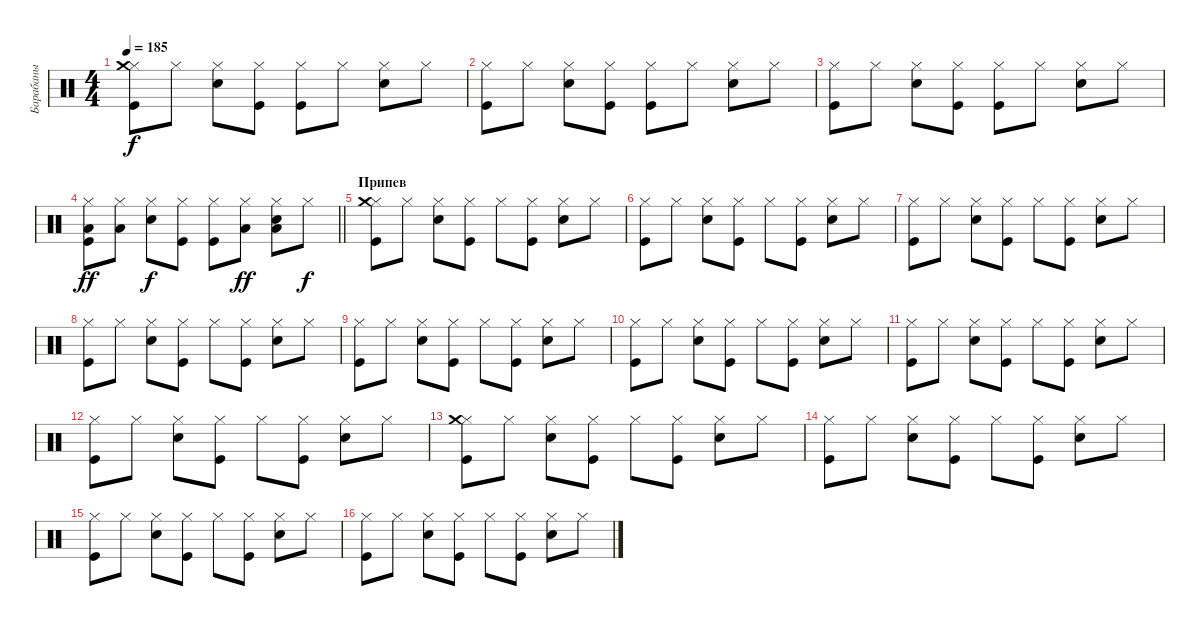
\track ("Барабаны" "Барабаны") {instrument percussion}
\staff {score}
\articulation defaults
\ts (4 4)
\tempo 185
\clef neutral
\ks c
("Kick (hit)" "Hi-Hat (closed)" "Crash medium (hit)").8{dy f} "Hi-Hat (closed)".8 ("Snare (hit) 2" "Hi-Hat (closed)").8 ("Kick (hit)" "Hi-Hat (closed)").8 ("Kick (hit)" "Hi-Hat (closed)").8 "Hi-Hat (closed)".8 ("Snare (hit) 2" "Hi-Hat (closed)").8 "Hi-Hat (closed)".8 |
("Kick (hit)" "Hi-Hat (closed)").8 "Hi-Hat (closed)".8 ("Snare (hit) 2" "Hi-Hat (closed)").8 ("Kick (hit)" "Hi-Hat (closed)").8 ("Kick (hit)" "Hi-Hat (closed)").8 "Hi-Hat (closed)".8 ("Snare (hit) 2" "Hi-Hat (closed)").8 "Hi-Hat (closed)".8 |
("Kick (hit)" "Hi-Hat (closed)").8 "Hi-Hat (closed)".8 ("Snare (hit) 2" "Hi-Hat (closed)").8 ("Kick (hit)" "Hi-Hat (closed)").8 ("Kick (hit)" "Hi-Hat (closed)").8 "Hi-Hat (closed)".8 ("Snare (hit) 2" "Hi-Hat (closed)").8 "Hi-Hat (closed)".8 |
\barLineRight lightlight
("Kick (hit)" "Hi-Hat (closed)" "Low Tom (hit)").8{dy ff} ("Hi-Hat (closed)" "Low Tom (hit)").8 ("Snare (hit) 2" "Hi-Hat (closed)").8{dy f} ("Kick (hit)" "Hi-Hat (closed)").8 ("Kick (hit)" "Hi-Hat (closed)").8 ("Hi-Hat (closed)" "Low Floor Tom (hit)").8{dy ff} ("Snare (hit) 2" "Hi-Hat (closed)" "Low Floor Tom (hit)").8 "Hi-Hat (closed)".8{dy f} |
\section ("" "Припев")
("Kick (hit)" "Hi-Hat (closed)" "Crash medium (hit)").8 "Hi-Hat (closed)".8 ("Snare (hit) 2" "Hi-Hat (closed)").8 ("Kick (hit)" "Hi-Hat (closed)").8 "Hi-Hat (closed)".8 ("Kick (hit)" "Hi-Hat (closed)").8 ("Snare (hit) 2" "Hi-Hat (closed)").8 "Hi-Hat (closed)".8 |
("Kick (hit)" "Hi-Hat (closed)").8 "Hi-Hat (closed)".8 ("Snare (hit) 2" "Hi-Hat (closed)").8 ("Kick (hit)" "Hi-Hat (closed)").8 "Hi-Hat (closed)".8 ("Kick (hit)" "Hi-Hat (closed)").8 ("Snare (hit) 2" "Hi-Hat (closed)").8 "Hi-Hat (closed)".8 |
("Kick (hit)" "Hi-Hat (closed)").8 "Hi-Hat (closed)".8 ("Snare (hit) 2" "Hi-Hat (closed)").8 ("Kick (hit)" "Hi-Hat (closed)").8 "Hi-Hat (closed)".8 ("Kick (hit)" "Hi-Hat (closed)").8 ("Snare (hit) 2" "Hi-Hat (closed)").8 "Hi-Hat (closed)".8 |
("Kick (hit)" "Hi-Hat (closed)").8 "Hi-Hat (closed)".8 ("Snare (hit) 2" "Hi-Hat (closed)").8 ("Kick (hit)" "Hi-Hat (closed)").8 "Hi-Hat (closed)".8 ("Kick (hit)" "Hi-Hat (closed)").8 ("Snare (hit) 2" "Hi-Hat (closed)").8 "Hi-Hat (closed)".8 |
("Kick (hit)" "Hi-Hat (closed)").8 "Hi-Hat (closed)".8 ("Snare (hit) 2" "Hi-Hat (closed)").8 ("Kick (hit)" "Hi-Hat (closed)").8 "Hi-Hat (closed)".8 ("Kick (hit)" "Hi-Hat (closed)").8 ("Snare (hit) 2" "Hi-Hat (closed)").8 "Hi-Hat (closed)".8 |
("Kick (hit)" "Hi-Hat (closed)").8 "Hi-Hat (closed)".8 ("Snare (hit) 2" "Hi-Hat (closed)").8 ("Kick (hit)" "Hi-Hat (closed)").8 "Hi-Hat (closed)".8 ("Kick (hit)" "Hi-Hat (closed)").8 ("Snare (hit) 2" "Hi-Hat (closed)").8 "Hi-Hat (closed)".8 |
("Kick (hit)" "Hi-Hat (closed)").8 "Hi-Hat (closed)".8 ("Snare (hit) 2" "Hi-Hat (closed)").8 ("Kick (hit)" "Hi-Hat (closed)").8 "Hi-Hat (closed)".8 ("Kick (hit)" "Hi-Hat (closed)").8 ("Snare (hit) 2" "Hi-Hat (closed)").8 "Hi-Hat (closed)".8 |
("Kick (hit)" "Hi-Hat (closed)").8 "Hi-Hat (closed)".8 ("Snare (hit) 2" "Hi-Hat (closed)").8 ("Kick (hit)" "Hi-Hat (closed)").8 "Hi-Hat (closed)".8 ("Kick (hit)" "Hi-Hat (closed)").8 ("Snare (hit) 2" "Hi-Hat (closed)").8 "Hi-Hat (closed)".8 |
("Kick (hit)" "Hi-Hat (closed)" "Crash medium (hit)").8 "Hi-Hat (closed)".8 ("Snare (hit) 2" "Hi-Hat (closed)").8 ("Kick (hit)" "Hi-Hat (closed)").8 "Hi-Hat (closed)".8 ("Kick (hit)" "Hi-Hat (closed)").8 ("Snare (hit) 2" "Hi-Hat (closed)").8 "Hi-Hat (closed)".8 |
("Kick (hit)" "Hi-Hat (closed)").8 "Hi-Hat (closed)".8 ("Snare (hit) 2" "Hi-Hat (closed)").8 ("Kick (hit)" "Hi-Hat (closed)").8 "Hi-Hat (closed)".8 ("Kick (hit)" "Hi-Hat (closed)").8 ("Snare (hit) 2" "Hi-Hat (closed)").8 "Hi-Hat (closed)".8 |
("Kick (hit)" "Hi-Hat (closed)").8 "Hi-Hat (closed)".8 ("Snare (hit) 2" "Hi-Hat (closed)").8 ("Kick (hit)" "Hi-Hat (closed)").8 "Hi-Hat (closed)".8 ("Kick (hit)" "Hi-Hat (closed)").8 ("Snare (hit) 2" "Hi-Hat (closed)").8 "Hi-Hat (closed)".8 |
("Kick (hit)" "Hi-Hat (closed)").8 "Hi-Hat (closed)".8 ("Snare (hit) 2" "Hi-Hat (closed)").8 ("Kick (hit)" "Hi-Hat (closed)").8 "Hi-Hat (closed)".8 ("Kick (hit)" "Hi-Hat (closed)").8 ("Snare (hit) 2" "Hi-Hat (closed)").8 "Hi-Hat (closed)".8
